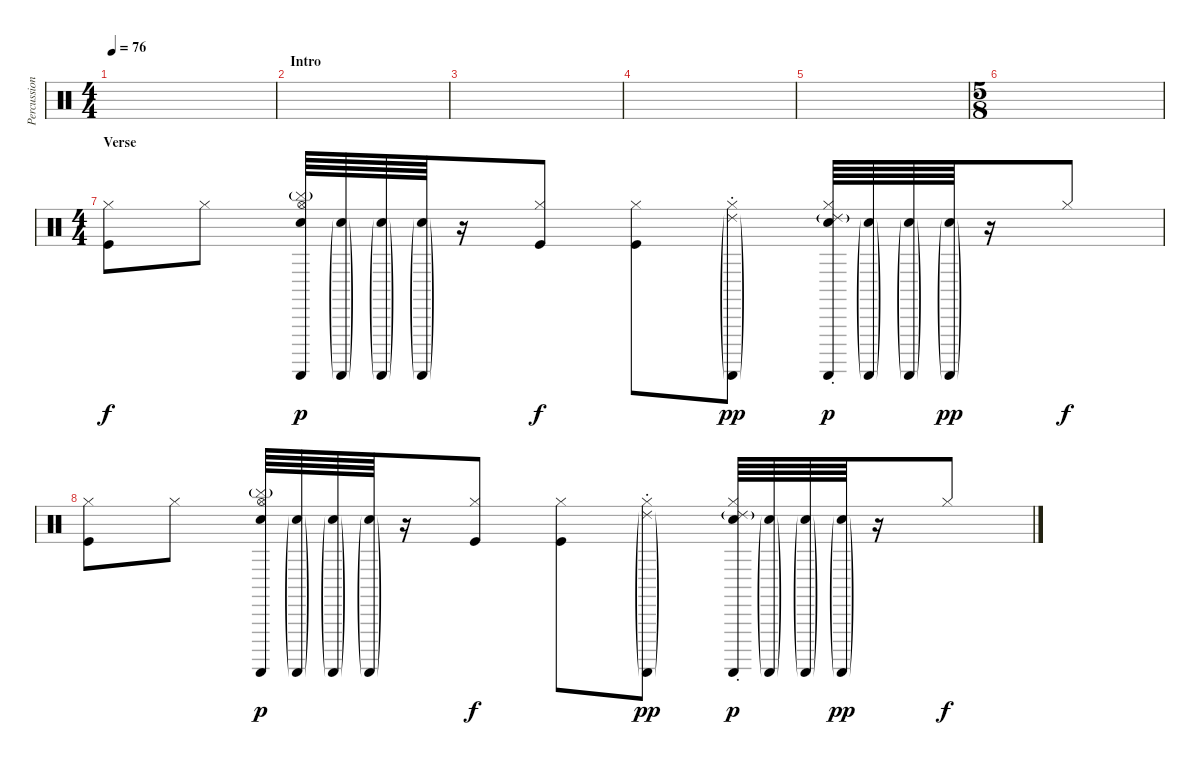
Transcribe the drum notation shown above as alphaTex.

\track ("Percussion" "Percussion") {instrument percussion}
\staff {score}
\articulation defaults
\ts (4 4)
\tempo 76
\clef neutral
\ks c
|
\section ("" "Intro")
|
|
|
|
\ts (5 8)
|
\ts (4 4)
\section ("" "Verse")
("Hi-Hat (closed)" "Kick (hit)").8 "Hi-Hat (closed)".8 ("Hi-Hat (open)" "Cymbal (hit)"{g} "Snare (hit) 2" "Guiro (scrap-return)").64{dy p} ("Snare (hit) 2"{g} "Guiro (scrap-return)"{g}).64 ("Snare (hit) 2"{g} "Guiro (scrap-return)"{g}).64 ("Snare (hit) 2"{g} "Guiro (scrap-return)"{g}).64 r.16 ("Hi-Hat (closed)" "Kick (hit)").8{dy f} ("Hi-Hat (closed)" "Kick (hit)").8 ("Hi-Hat (closed)" "Ride (choke) 2"{g} "Guiro (scrap-return)"{g}).8{dy pp} ("Hi-Hat (closed)" "Ride (choke) 2"{g} "Snare (hit) 2" "Guiro (scrap-return)").64{dy p} ("Snare (hit) 2"{g} "Guiro (scrap-return)"{g}).64 ("Snare (hit) 2"{g} "Guiro (scrap-return)"{g}).64 ("Snare (hit) 2"{g} "Guiro (scrap-return)"{g}).64{dy pp} r.16 "Hi-Hat (closed)".8{dy f} |
("Hi-Hat (closed)" "Kick (hit)").8 "Hi-Hat (closed)".8 ("Hi-Hat (open)" "Cymbal (hit)"{g} "Snare (hit) 2" "Guiro (scrap-return)").64{dy p} ("Snare (hit) 2"{g} "Guiro (scrap-return)"{g}).64 ("Snare (hit) 2"{g} "Guiro (scrap-return)"{g}).64 ("Snare (hit) 2"{g} "Guiro (scrap-return)"{g}).64 r.16 ("Hi-Hat (closed)" "Kick (hit)").8{dy f} ("Hi-Hat (closed)" "Kick (hit)").8 ("Hi-Hat (closed)" "Ride (choke) 2"{g} "Guiro (scrap-return)"{g}).8{dy pp} ("Hi-Hat (closed)" "Ride (choke) 2"{g} "Snare (hit) 2" "Guiro (scrap-return)").64{dy p} ("Snare (hit) 2"{g} "Guiro (scrap-return)"{g}).64 ("Snare (hit) 2"{g} "Guiro (scrap-return)"{g}).64 ("Snare (hit) 2"{g} "Guiro (scrap-return)"{g}).64{dy pp} r.16 "Hi-Hat (closed)".8{dy f}
